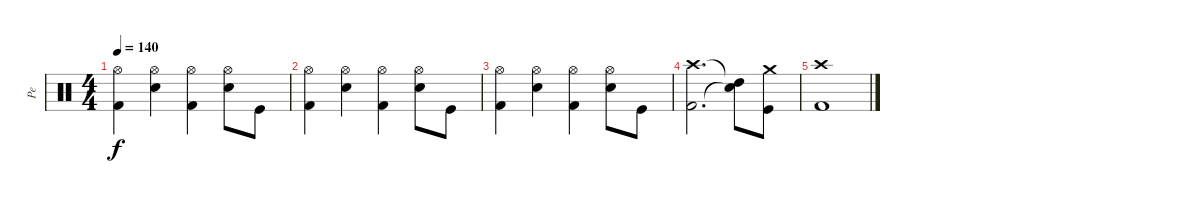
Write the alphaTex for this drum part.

\track ("Pe" "Pe") {instrument percussion}
\staff {score}
\articulation defaults
\ts (4 4)
\tempo 140
\clef neutral
\ks c
("Kick (hit) 2" "Hi-Hat (open)").4{dy f} ("Electric Snare (hit)" "Hi-Hat (open)").4 ("Kick (hit) 2" "Hi-Hat (open)").4 ("Electric Snare (hit)" "Hi-Hat (open)").8 "Kick (hit)".8 |
("Kick (hit) 2" "Hi-Hat (open)").4 ("Electric Snare (hit)" "Hi-Hat (open)").4 ("Kick (hit) 2" "Hi-Hat (open)").4 ("Electric Snare (hit)" "Hi-Hat (open)").8 "Kick (hit)".8 |
("Kick (hit) 2" "Hi-Hat (open)").4 ("Electric Snare (hit)" "Hi-Hat (open)").4 ("Kick (hit) 2" "Hi-Hat (open)").4 ("Electric Snare (hit)" "Hi-Hat (open)").8 "Kick (hit)".8 |
("Kick (hit) 2" "Crash high (hit)").2{d} ("Snare (hit)"{t} "High Tom (hit)"{t}).8 ("Kick (hit)" "Crash medium (hit)").8 |
("Kick (hit) 2" "Crash high (hit)").1
